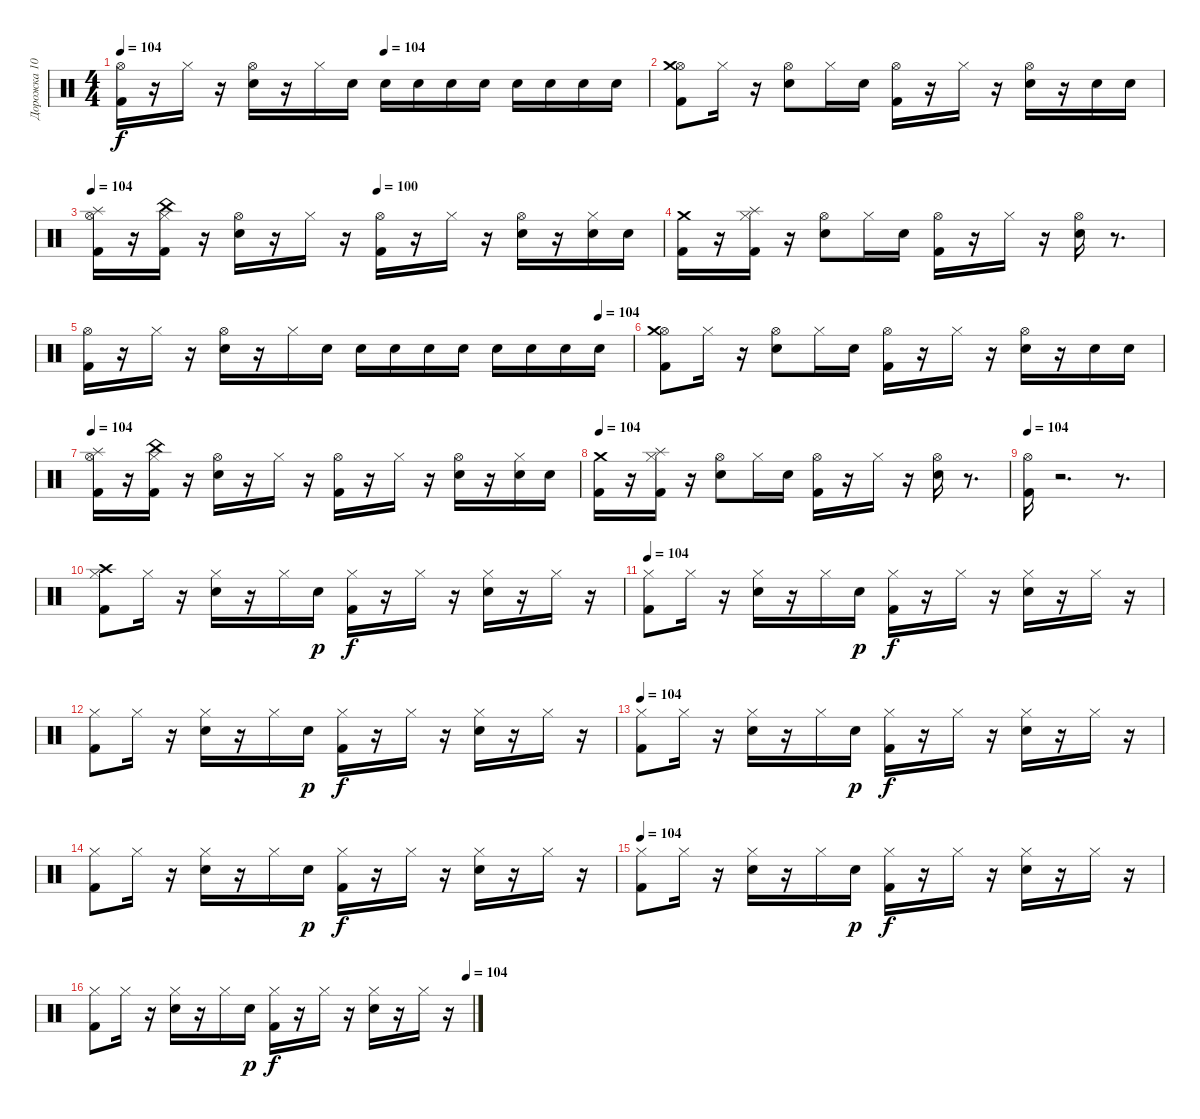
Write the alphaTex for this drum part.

\track ("Дорожка 10" "Дорожка 10") {instrument percussion}
\staff {score}
\articulation defaults
\ts (4 4)
\tempo 104
\tempo (104 0.5)
\clef neutral
\ks c
("Hi-Hat (open)" "Kick (hit) 2").16{dy f} r.16 "Hi-Hat (closed)".16 r.16 ("Electric Snare (hit)" "Hi-Hat (open)").16 r.16 "Hi-Hat (closed)".16 "Electric Snare (hit)".16 "Electric Snare (hit)".16 "Electric Snare (hit)".16 "Electric Snare (hit)".16 "Electric Snare (hit)".16 "Electric Snare (hit)".16 "Electric Snare (hit)".16 "Electric Snare (hit)".16 "Electric Snare (hit)".16 |
("Hi-Hat (open)" "Crash medium (hit)" "Kick (hit) 2").8 "Hi-Hat (closed)".16 r.16 ("Hi-Hat (open)" "Electric Snare (hit)").8 "Hi-Hat (closed)".16 "Electric Snare (hit)".16 ("Hi-Hat (open)" "Kick (hit) 2").16 r.16 "Hi-Hat (closed)".16 r.16 ("Hi-Hat (open)" "Electric Snare (hit)").16 r.16 "Electric Snare (hit)".16 "Electric Snare (hit)".16 |
\tempo 104
\tempo (100 0.5)
("Splash (hit)" "Hi-Hat (open)" "Kick (hit) 2").16 r.16 ("Kick (hit) 2" "China (hit)" "Hi-Hat (closed)").16 r.16 ("Electric Snare (hit)" "Hi-Hat (open)").16 r.16 "Hi-Hat (closed)".16 r.16 ("Kick (hit) 2" "Hi-Hat (open)").16 r.16 "Hi-Hat (closed)".16 r.16 ("Electric Snare (hit)" "Hi-Hat (open)").16 r.16 ("Electric Snare (hit)" "Hi-Hat (closed)").16 "Electric Snare (hit)".16 |
("Kick (hit) 2" "Crash medium (hit)").16 r.16 ("Kick (hit) 2" "Splash (hit)" "Hi-Hat (closed)").16 r.16 ("Hi-Hat (open)" "Electric Snare (hit)").8 "Hi-Hat (closed)".16 "Electric Snare (hit)".16 ("Hi-Hat (open)" "Kick (hit) 2").16 r.16 "Hi-Hat (closed)".16 r.16 ("Hi-Hat (open)" "Electric Snare (hit)").16 r.8{d} |
\tempo (104 0.9375)
("Hi-Hat (open)" "Kick (hit) 2").16 r.16 "Hi-Hat (closed)".16 r.16 ("Electric Snare (hit)" "Hi-Hat (open)").16 r.16 "Hi-Hat (closed)".16 "Electric Snare (hit)".16 "Electric Snare (hit)".16 "Electric Snare (hit)".16 "Electric Snare (hit)".16 "Electric Snare (hit)".16 "Electric Snare (hit)".16 "Electric Snare (hit)".16 "Electric Snare (hit)".16 "Electric Snare (hit)".16 |
("Hi-Hat (open)" "Crash medium (hit)" "Kick (hit) 2").8 "Hi-Hat (closed)".16 r.16 ("Hi-Hat (open)" "Electric Snare (hit)").8 "Hi-Hat (closed)".16 "Electric Snare (hit)".16 ("Hi-Hat (open)" "Kick (hit) 2").16 r.16 "Hi-Hat (closed)".16 r.16 ("Hi-Hat (open)" "Electric Snare (hit)").16 r.16 "Electric Snare (hit)".16 "Electric Snare (hit)".16 |
\tempo 104
("Splash (hit)" "Hi-Hat (open)" "Kick (hit) 2").16 r.16 ("Kick (hit) 2" "China (hit)" "Hi-Hat (closed)").16 r.16 ("Electric Snare (hit)" "Hi-Hat (open)").16 r.16 "Hi-Hat (closed)".16 r.16 ("Kick (hit) 2" "Hi-Hat (open)").16 r.16 "Hi-Hat (closed)".16 r.16 ("Electric Snare (hit)" "Hi-Hat (open)").16 r.16 ("Electric Snare (hit)" "Hi-Hat (closed)").16 "Electric Snare (hit)".16 |
\tempo 104
("Kick (hit) 2" "Crash medium (hit)").16 r.16 ("Kick (hit) 2" "Splash (hit)" "Hi-Hat (closed)").16 r.16 ("Hi-Hat (open)" "Electric Snare (hit)").8 "Hi-Hat (closed)".16 "Electric Snare (hit)".16 ("Hi-Hat (open)" "Kick (hit) 2").16 r.16 "Hi-Hat (closed)".16 r.16 ("Hi-Hat (open)" "Electric Snare (hit)").16 r.8{d} |
\tempo 104
("Hi-Hat (open)" "Kick (hit) 2").16 r.2{d} r.8{d} |
("Hi-Hat (closed)" "Crash high (hit)" "Kick (hit) 2").8 "Hi-Hat (closed)".16 r.16 ("Hi-Hat (closed)" "Electric Snare (hit)").16 r.16 "Hi-Hat (closed)".16 "Electric Snare (hit)".16{dy p} ("Hi-Hat (closed)" "Kick (hit) 2").16{dy f} r.16 "Hi-Hat (closed)".16 r.16 ("Hi-Hat (closed)" "Electric Snare (hit)").16 r.16 "Hi-Hat (closed)".16 r.16 |
\tempo 104
("Hi-Hat (closed)" "Kick (hit) 2").8 "Hi-Hat (closed)".16 r.16 ("Hi-Hat (closed)" "Electric Snare (hit)").16 r.16 "Hi-Hat (closed)".16 "Electric Snare (hit)".16{dy p} ("Hi-Hat (closed)" "Kick (hit) 2").16{dy f} r.16 "Hi-Hat (closed)".16 r.16 ("Hi-Hat (closed)" "Electric Snare (hit)").16 r.16 "Hi-Hat (closed)".16 r.16 |
("Hi-Hat (closed)" "Kick (hit) 2").8 "Hi-Hat (closed)".16 r.16 ("Hi-Hat (closed)" "Electric Snare (hit)").16 r.16 "Hi-Hat (closed)".16 "Electric Snare (hit)".16{dy p} ("Hi-Hat (closed)" "Kick (hit) 2").16{dy f} r.16 "Hi-Hat (closed)".16 r.16 ("Hi-Hat (closed)" "Electric Snare (hit)").16 r.16 "Hi-Hat (closed)".16 r.16 |
\tempo 104
("Hi-Hat (closed)" "Kick (hit) 2").8 "Hi-Hat (closed)".16 r.16 ("Hi-Hat (closed)" "Electric Snare (hit)").16 r.16 "Hi-Hat (closed)".16 "Electric Snare (hit)".16{dy p} ("Hi-Hat (closed)" "Kick (hit) 2").16{dy f} r.16 "Hi-Hat (closed)".16 r.16 ("Hi-Hat (closed)" "Electric Snare (hit)").16 r.16 "Hi-Hat (closed)".16 r.16 |
("Hi-Hat (closed)" "Kick (hit) 2").8 "Hi-Hat (closed)".16 r.16 ("Hi-Hat (closed)" "Electric Snare (hit)").16 r.16 "Hi-Hat (closed)".16 "Electric Snare (hit)".16{dy p} ("Hi-Hat (closed)" "Kick (hit) 2").16{dy f} r.16 "Hi-Hat (closed)".16 r.16 ("Hi-Hat (closed)" "Electric Snare (hit)").16 r.16 "Hi-Hat (closed)".16 r.16 |
\tempo 104
("Hi-Hat (closed)" "Kick (hit) 2").8 "Hi-Hat (closed)".16 r.16 ("Hi-Hat (closed)" "Electric Snare (hit)").16 r.16 "Hi-Hat (closed)".16 "Electric Snare (hit)".16{dy p} ("Hi-Hat (closed)" "Kick (hit) 2").16{dy f} r.16 "Hi-Hat (closed)".16 r.16 ("Hi-Hat (closed)" "Electric Snare (hit)").16 r.16 "Hi-Hat (closed)".16 r.16 |
\tempo (104 0.984375)
("Hi-Hat (closed)" "Kick (hit) 2").8 "Hi-Hat (closed)".16 r.16 ("Hi-Hat (closed)" "Electric Snare (hit)").16 r.16 "Hi-Hat (closed)".16 "Electric Snare (hit)".16{dy p} ("Hi-Hat (closed)" "Kick (hit) 2").16{dy f} r.16 "Hi-Hat (closed)".16 r.16 ("Hi-Hat (closed)" "Electric Snare (hit)").16 r.16 "Hi-Hat (closed)".16 r.16
